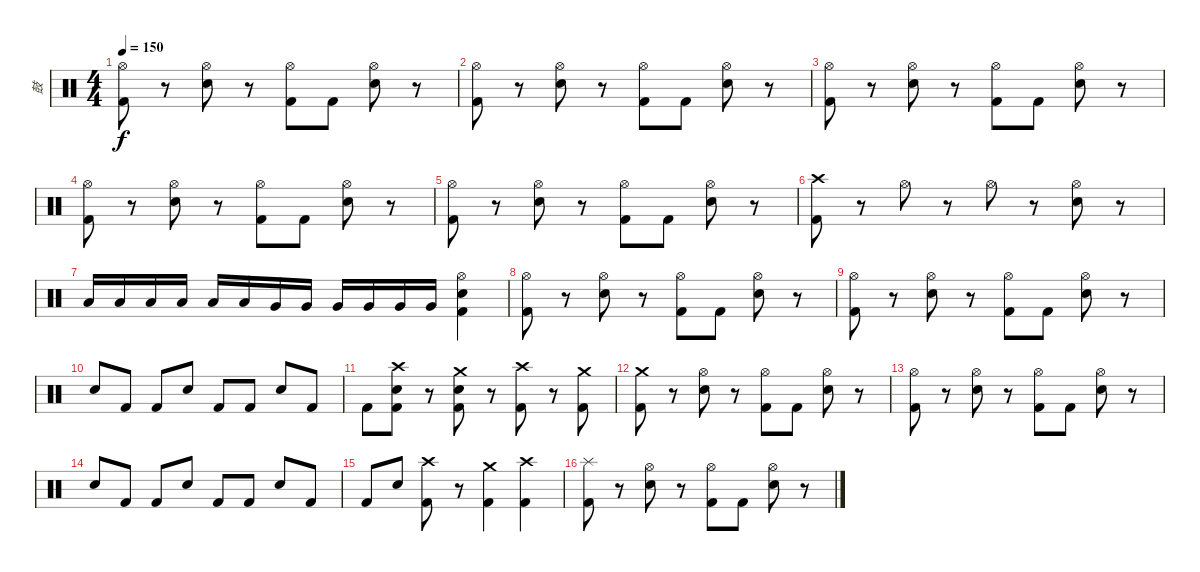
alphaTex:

\track ("鼓" "鼓") {instrument percussion}
\staff {score}
\articulation defaults
\ts (4 4)
\tempo 150
\clef neutral
\ks c
("Hi-Hat (open)" "Kick (hit) 2").8{dy f} r.8 ("Hi-Hat (open)" "Electric Snare (hit)").8 r.8 ("Hi-Hat (open)" "Kick (hit) 2").8 "Kick (hit) 2".8 ("Hi-Hat (open)" "Electric Snare (hit)").8 r.8 |
("Hi-Hat (open)" "Kick (hit) 2").8 r.8 ("Hi-Hat (open)" "Electric Snare (hit)").8 r.8 ("Hi-Hat (open)" "Kick (hit) 2").8 "Kick (hit) 2".8 ("Hi-Hat (open)" "Electric Snare (hit)").8 r.8 |
("Hi-Hat (open)" "Kick (hit) 2").8 r.8 ("Hi-Hat (open)" "Electric Snare (hit)").8 r.8 ("Hi-Hat (open)" "Kick (hit) 2").8 "Kick (hit) 2".8 ("Hi-Hat (open)" "Electric Snare (hit)").8 r.8 |
("Hi-Hat (open)" "Kick (hit) 2").8 r.8 ("Hi-Hat (open)" "Electric Snare (hit)").8 r.8 ("Hi-Hat (open)" "Kick (hit) 2").8 "Kick (hit) 2".8 ("Hi-Hat (open)" "Electric Snare (hit)").8 r.8 |
("Hi-Hat (open)" "Kick (hit) 2").8 r.8 ("Hi-Hat (open)" "Electric Snare (hit)").8 r.8 ("Hi-Hat (open)" "Kick (hit) 2").8 "Kick (hit) 2".8 ("Hi-Hat (open)" "Electric Snare (hit)").8 r.8 |
("Crash high (hit)" "Kick (hit) 2").8 r.8 "Hi-Hat (open)".8 r.8 "Hi-Hat (open)".8 r.8 ("Hi-Hat (open)" "Electric Snare (hit)").8 r.8 |
"Low Tom (hit)".16 "Low Tom (hit)".16 "Low Tom (hit)".16 "Low Tom (hit)".16 "Low Tom (hit)".16 "Low Tom (hit)".16 "Very Low Tom (hit)".16 "Very Low Tom (hit)".16 "Very Low Tom (hit)".16 "Very Low Tom (hit)".16 "Very Low Tom (hit)".16 "Very Low Tom (hit)".16 ("Hi-Hat (open)" "Electric Snare (hit)" "Kick (hit) 2").4 |
("Hi-Hat (open)" "Kick (hit) 2").8 r.8 ("Hi-Hat (open)" "Electric Snare (hit)").8 r.8 ("Hi-Hat (open)" "Kick (hit) 2").8 "Kick (hit) 2".8 ("Hi-Hat (open)" "Electric Snare (hit)").8 r.8 |
("Hi-Hat (open)" "Kick (hit) 2").8 r.8 ("Hi-Hat (open)" "Electric Snare (hit)").8 r.8 ("Hi-Hat (open)" "Kick (hit) 2").8 "Kick (hit) 2".8 ("Hi-Hat (open)" "Electric Snare (hit)").8 r.8 |
"Electric Snare (hit)".8 "Kick (hit) 2".8 "Kick (hit) 2".8 "Electric Snare (hit)".8 "Kick (hit) 2".8 "Kick (hit) 2".8 "Electric Snare (hit)".8 "Kick (hit) 2".8 |
"Kick (hit) 2".8 ("Crash high (hit)" "Electric Snare (hit)" "Kick (hit) 2").8 r.8 ("Crash medium (hit)" "Electric Snare (hit)" "Kick (hit) 2").8 r.8 ("Crash high (hit)" "Kick (hit) 2").8 r.8 ("Crash medium (hit)" "Kick (hit) 2").8 |
("Crash medium (hit)" "Kick (hit) 2").8 r.8 ("Hi-Hat (open)" "Electric Snare (hit)").8 r.8 ("Hi-Hat (open)" "Kick (hit) 2").8 "Kick (hit) 2".8 ("Hi-Hat (open)" "Electric Snare (hit)").8 r.8 |
("Hi-Hat (open)" "Kick (hit) 2").8 r.8 ("Hi-Hat (open)" "Electric Snare (hit)").8 r.8 ("Hi-Hat (open)" "Kick (hit) 2").8 "Kick (hit) 2".8 ("Hi-Hat (open)" "Electric Snare (hit)").8 r.8 |
"Electric Snare (hit)".8 "Kick (hit) 2".8 "Kick (hit) 2".8 "Electric Snare (hit)".8 "Kick (hit) 2".8 "Kick (hit) 2".8 "Electric Snare (hit)".8 "Kick (hit) 2".8 |
"Kick (hit) 2".8 "Electric Snare (hit)".8 ("Crash high (hit)" "Kick (hit) 2").8 r.8 ("Crash medium (hit)" "Kick (hit) 2").4 ("Crash high (hit)" "Kick (hit) 2").4 |
("Splash (hit)" "Kick (hit) 2").8 r.8 ("Hi-Hat (open)" "Electric Snare (hit)").8 r.8 ("Hi-Hat (open)" "Kick (hit) 2").8 "Kick (hit) 2".8 ("Hi-Hat (open)" "Electric Snare (hit)").8 r.8
